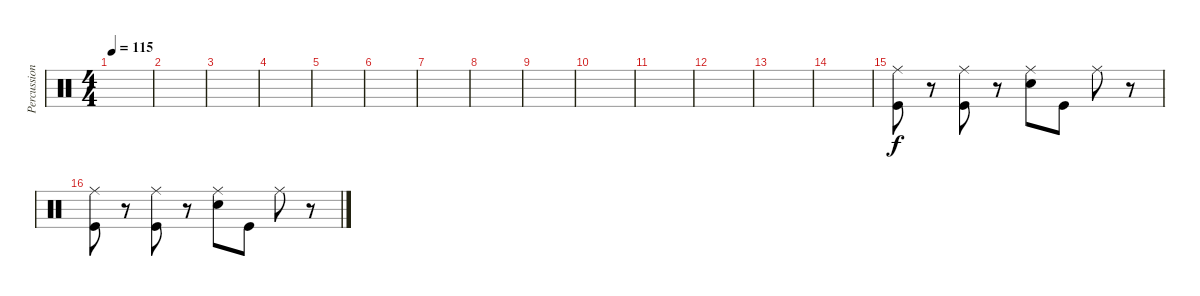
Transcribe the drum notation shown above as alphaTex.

\track ("Percussions" "Percussion") {instrument percussion}
\staff {score}
\articulation defaults
\ts (4 4)
\tempo 115
\clef neutral
\ks c
|
|
|
|
|
|
|
|
|
|
|
|
|
|
("Ride (middle)" "Kick (hit)").8 r.8 ("Ride (middle)" "Kick (hit)").8 r.8 ("Ride (middle)" "Electric Snare (hit)").8 "Kick (hit)".8 "Ride (middle)".8 r.8 |
("Ride (middle)" "Kick (hit)").8 r.8 ("Ride (middle)" "Kick (hit)").8 r.8 ("Ride (middle)" "Electric Snare (hit)").8 "Kick (hit)".8 "Ride (middle)".8 r.8
